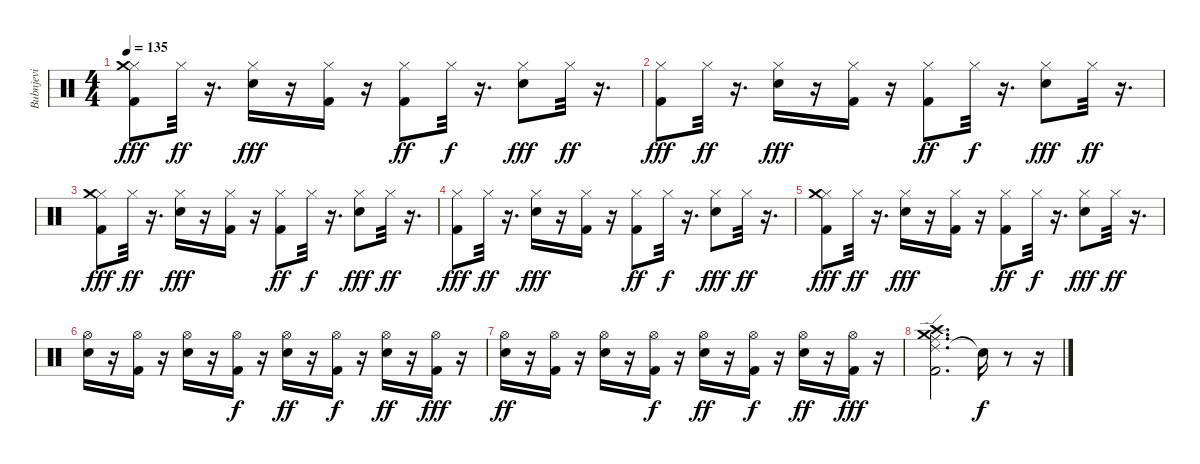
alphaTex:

\track ("Bubnjevi" "Bubnjevi") {instrument percussion}
\staff {score}
\articulation defaults
\ts (4 4)
\tempo 135
\clef neutral
\ks c
("Kick (hit) 2" "Hi-Hat (closed)" "Crash medium (hit)").8{dy fff} "Hi-Hat (closed)".32{dy ff} r.16{d} ("Electric Snare (hit)" "Hi-Hat (closed)").16{dy fff} r.16 ("Kick (hit) 2" "Hi-Hat (closed)").16 r.16 ("Kick (hit) 2" "Hi-Hat (closed)").8{dy ff} "Hi-Hat (closed)".32{dy f} r.16{d} ("Electric Snare (hit)" "Hi-Hat (closed)").8{dy fff} "Hi-Hat (closed)".32{dy ff} r.16{d} |
("Kick (hit) 2" "Hi-Hat (closed)").8{dy fff} "Hi-Hat (closed)".32{dy ff} r.16{d} ("Electric Snare (hit)" "Hi-Hat (closed)").16{dy fff} r.16 ("Kick (hit) 2" "Hi-Hat (closed)").16 r.16 ("Kick (hit) 2" "Hi-Hat (closed)").8{dy ff} "Hi-Hat (closed)".32{dy f} r.16{d} ("Electric Snare (hit)" "Hi-Hat (closed)").8{dy fff} "Hi-Hat (closed)".32{dy ff} r.16{d} |
("Kick (hit) 2" "Hi-Hat (closed)" "Crash medium (hit)").8{dy fff} "Hi-Hat (closed)".32{dy ff} r.16{d} ("Electric Snare (hit)" "Hi-Hat (closed)").16{dy fff} r.16 ("Kick (hit) 2" "Hi-Hat (closed)").16 r.16 ("Kick (hit) 2" "Hi-Hat (closed)").8{dy ff} "Hi-Hat (closed)".32{dy f} r.16{d} ("Electric Snare (hit)" "Hi-Hat (closed)").8{dy fff} "Hi-Hat (closed)".32{dy ff} r.16{d} |
("Kick (hit) 2" "Hi-Hat (closed)").8{dy fff} "Hi-Hat (closed)".32{dy ff} r.16{d} ("Electric Snare (hit)" "Hi-Hat (closed)").16{dy fff} r.16 ("Kick (hit) 2" "Hi-Hat (closed)").16 r.16 ("Kick (hit) 2" "Hi-Hat (closed)").8{dy ff} "Hi-Hat (closed)".32{dy f} r.16{d} ("Electric Snare (hit)" "Hi-Hat (closed)").8{dy fff} "Hi-Hat (closed)".32{dy ff} r.16{d} |
("Kick (hit) 2" "Hi-Hat (closed)" "Crash medium (hit)").8{dy fff} "Hi-Hat (closed)".32{dy ff} r.16{d} ("Electric Snare (hit)" "Hi-Hat (closed)").16{dy fff} r.16 ("Kick (hit) 2" "Hi-Hat (closed)").16 r.16 ("Kick (hit) 2" "Hi-Hat (closed)").8{dy ff} "Hi-Hat (closed)".32{dy f} r.16{d} ("Electric Snare (hit)" "Hi-Hat (closed)").8{dy fff} "Hi-Hat (closed)".32{dy ff} r.16{d} |
("Hi-Hat (open)" "Electric Snare (hit)").16 r.16 ("Hi-Hat (open)" "Kick (hit) 2").16 r.16 ("Hi-Hat (open)" "Electric Snare (hit)").16 r.16 ("Hi-Hat (open)" "Kick (hit) 2").16{dy f} r.16 ("Hi-Hat (open)" "Electric Snare (hit)").16{dy ff} r.16 ("Hi-Hat (open)" "Kick (hit) 2").16{dy f} r.16 ("Hi-Hat (open)" "Electric Snare (hit)").16{dy ff} r.16 ("Hi-Hat (open)" "Kick (hit) 2").16{dy fff} r.16 |
("Hi-Hat (open)" "Electric Snare (hit)").16{dy ff} r.16 ("Hi-Hat (open)" "Kick (hit) 2").16 r.16 ("Hi-Hat (open)" "Electric Snare (hit)").16 r.16 ("Hi-Hat (open)" "Kick (hit) 2").16{dy f} r.16 ("Hi-Hat (open)" "Electric Snare (hit)").16{dy ff} r.16 ("Hi-Hat (open)" "Kick (hit) 2").16{dy f} r.16 ("Hi-Hat (open)" "Electric Snare (hit)").16{dy ff} r.16 ("Hi-Hat (open)" "Kick (hit) 2").16{dy fff} r.16 |
("Ride (edge) 2" "Crash medium (hit)" "Ride (middle)" "Kick (hit) 2" "Crash high (hit)").2{d} "Snare (hit)"{t}.16{dy f} r.8 r.16
